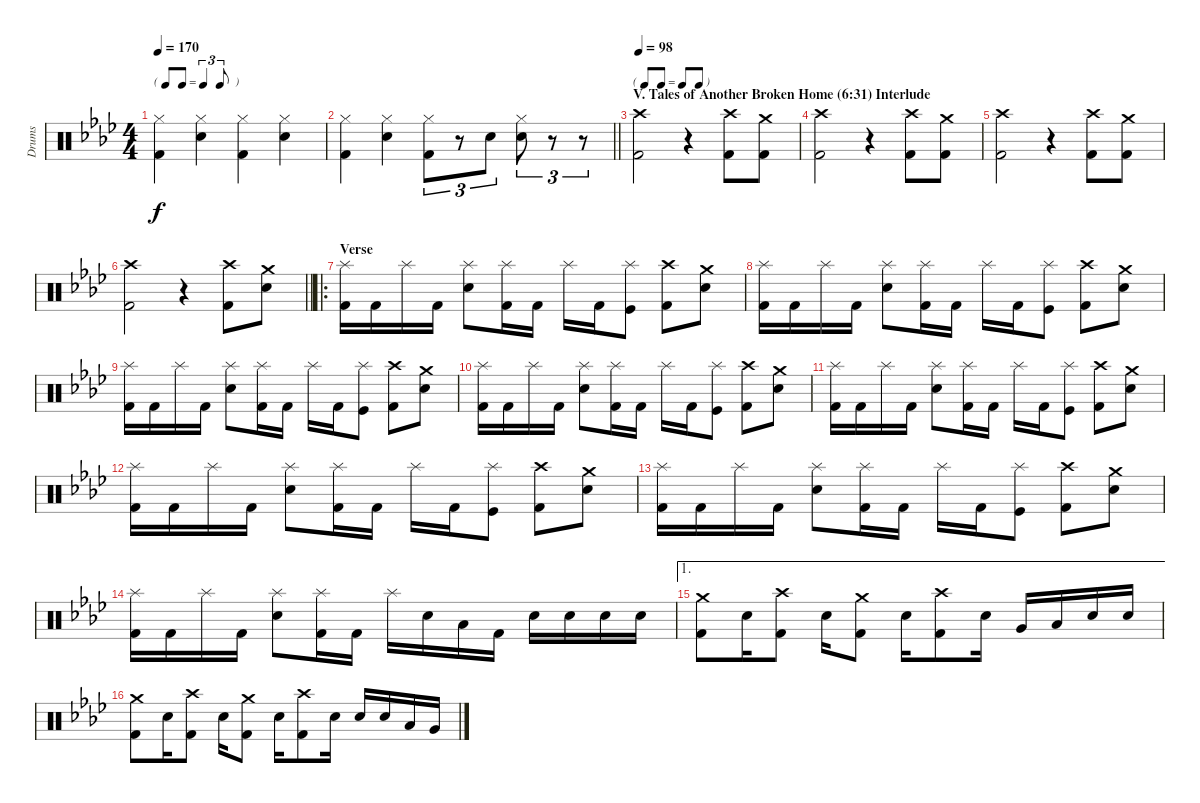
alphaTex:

\track ("Drums" "Drums") {instrument percussion}
\staff {score}
\articulation defaults
\ts (4 4)
\tf triplet8th
\tempo 170
\clef neutral
\ks ab
("Hi-Hat (closed)" "Kick (hit) 2").4{dy f} ("Hi-Hat (closed)" "Snare (hit) 2").4 ("Hi-Hat (closed)" "Kick (hit) 2").4 ("Hi-Hat (closed)" "Snare (hit) 2").4 |
\barLineRight lightlight
("Hi-Hat (closed)" "Kick (hit) 2").4 ("Hi-Hat (closed)" "Snare (hit) 2").4 ("Hi-Hat (closed)" "Kick (hit) 2").8{tu (3 2)} r.8{tu (3 2)} "Snare (hit) 2".8{tu (3 2)} ("Hi-Hat (closed)" "Snare (hit) 2").8{tu (3 2)} r.8{tu (3 2)} r.8{tu (3 2)} |
\tf none
\section ("" "V. Tales of Another Broken Home (6:31) Interlude")
\tempo 98
("Crash high (hit)" "Kick (hit) 2").2 r.4 ("Crash high (hit)" "Kick (hit) 2").8 ("Crash medium (hit)" "Kick (hit) 2").8 |
("Crash high (hit)" "Kick (hit) 2").2 r.4 ("Crash high (hit)" "Kick (hit) 2").8 ("Crash medium (hit)" "Kick (hit) 2").8 |
("Crash high (hit)" "Kick (hit) 2").2 r.4 ("Crash high (hit)" "Kick (hit) 2").8 ("Crash medium (hit)" "Kick (hit) 2").8 |
\barLineRight lightlight
("Crash high (hit)" "Kick (hit) 2").2 r.4 ("Crash high (hit)" "Kick (hit) 2").8 ("Crash medium (hit)" "Snare (hit) 2").8 |
\ro
\section ("" "Verse")
("Splash (hit)" "Kick (hit) 2").16 "Kick (hit) 2".16 "Splash (hit)".16 "Kick (hit) 2".16 ("Splash (hit)" "Snare (hit) 2").8 ("Splash (hit)" "Kick (hit) 2").16 "Kick (hit) 2".16 "Splash (hit)".16 "Kick (hit) 2".16 ("Splash (hit)" "Kick (hit)").8 ("Crash high (hit)" "Kick (hit) 2").8 ("Crash medium (hit)" "Snare (hit) 2").8 |
("Splash (hit)" "Kick (hit) 2").16 "Kick (hit) 2".16 "Splash (hit)".16 "Kick (hit) 2".16 ("Splash (hit)" "Snare (hit) 2").8 ("Splash (hit)" "Kick (hit) 2").16 "Kick (hit) 2".16 "Splash (hit)".16 "Kick (hit) 2".16 ("Splash (hit)" "Kick (hit)").8 ("Crash high (hit)" "Kick (hit) 2").8 ("Crash medium (hit)" "Snare (hit) 2").8 |
("Splash (hit)" "Kick (hit) 2").16 "Kick (hit) 2".16 "Splash (hit)".16 "Kick (hit) 2".16 ("Splash (hit)" "Snare (hit) 2").8 ("Splash (hit)" "Kick (hit) 2").16 "Kick (hit) 2".16 "Splash (hit)".16 "Kick (hit) 2".16 ("Splash (hit)" "Kick (hit)").8 ("Crash high (hit)" "Kick (hit) 2").8 ("Crash medium (hit)" "Snare (hit) 2").8 |
("Splash (hit)" "Kick (hit) 2").16 "Kick (hit) 2".16 "Splash (hit)".16 "Kick (hit) 2".16 ("Splash (hit)" "Snare (hit) 2").8 ("Splash (hit)" "Kick (hit) 2").16 "Kick (hit) 2".16 "Splash (hit)".16 "Kick (hit) 2".16 ("Splash (hit)" "Kick (hit)").8 ("Crash high (hit)" "Kick (hit) 2").8 ("Crash medium (hit)" "Snare (hit) 2").8 |
("Splash (hit)" "Kick (hit) 2").16 "Kick (hit) 2".16 "Splash (hit)".16 "Kick (hit) 2".16 ("Splash (hit)" "Snare (hit) 2").8 ("Splash (hit)" "Kick (hit) 2").16 "Kick (hit) 2".16 "Splash (hit)".16 "Kick (hit) 2".16 ("Splash (hit)" "Kick (hit)").8 ("Crash high (hit)" "Kick (hit) 2").8 ("Crash medium (hit)" "Snare (hit) 2").8 |
("Splash (hit)" "Kick (hit) 2").16 "Kick (hit) 2".16 "Splash (hit)".16 "Kick (hit) 2".16 ("Splash (hit)" "Snare (hit) 2").8 ("Splash (hit)" "Kick (hit) 2").16 "Kick (hit) 2".16 "Splash (hit)".16 "Kick (hit) 2".16 ("Splash (hit)" "Kick (hit)").8 ("Crash high (hit)" "Kick (hit) 2").8 ("Crash medium (hit)" "Snare (hit) 2").8 |
("Splash (hit)" "Kick (hit) 2").16 "Kick (hit) 2".16 "Splash (hit)".16 "Kick (hit) 2".16 ("Splash (hit)" "Snare (hit) 2").8 ("Splash (hit)" "Kick (hit) 2").16 "Kick (hit) 2".16 "Splash (hit)".16 "Kick (hit) 2".16 ("Splash (hit)" "Kick (hit)").8 ("Crash high (hit)" "Kick (hit) 2").8 ("Crash medium (hit)" "Snare (hit) 2").8 |
("Splash (hit)" "Kick (hit) 2").16 "Kick (hit) 2".16 "Splash (hit)".16 "Kick (hit) 2".16 ("Splash (hit)" "Snare (hit) 2").8 ("Splash (hit)" "Kick (hit) 2").16 "Kick (hit) 2".16 "Splash (hit)".16 "Snare (hit) 2".16 "Low Tom (hit)".16 "Kick (hit) 2".16 "Snare (hit) 2".16 "Snare (hit) 2".16 "Snare (hit) 2".16 "Snare (hit) 2".16 |
\ae 1
("Crash medium (hit)" "Kick (hit) 2").8 "Snare (hit) 2".16 ("Crash high (hit)" "Kick (hit) 2").8 "Snare (hit) 2".16 ("Crash medium (hit)" "Kick (hit) 2").8 "Snare (hit) 2".16 ("Crash high (hit)" "Kick (hit) 2").8 "Snare (hit) 2".16 "Very Low Tom (hit)".16 "Low Tom (hit)".16 "Snare (hit) 2".16 "Snare (hit) 2".16 |
("Crash medium (hit)" "Kick (hit) 2").8 "Snare (hit) 2".16 ("Crash high (hit)" "Kick (hit) 2").8 "Snare (hit) 2".16 ("Crash medium (hit)" "Kick (hit) 2").8 "Snare (hit) 2".16 ("Crash high (hit)" "Kick (hit) 2").8 "Snare (hit) 2".16 "Snare (hit) 2".16 "Snare (hit) 2".16 "Low Tom (hit)".16 "Very Low Tom (hit)".16
